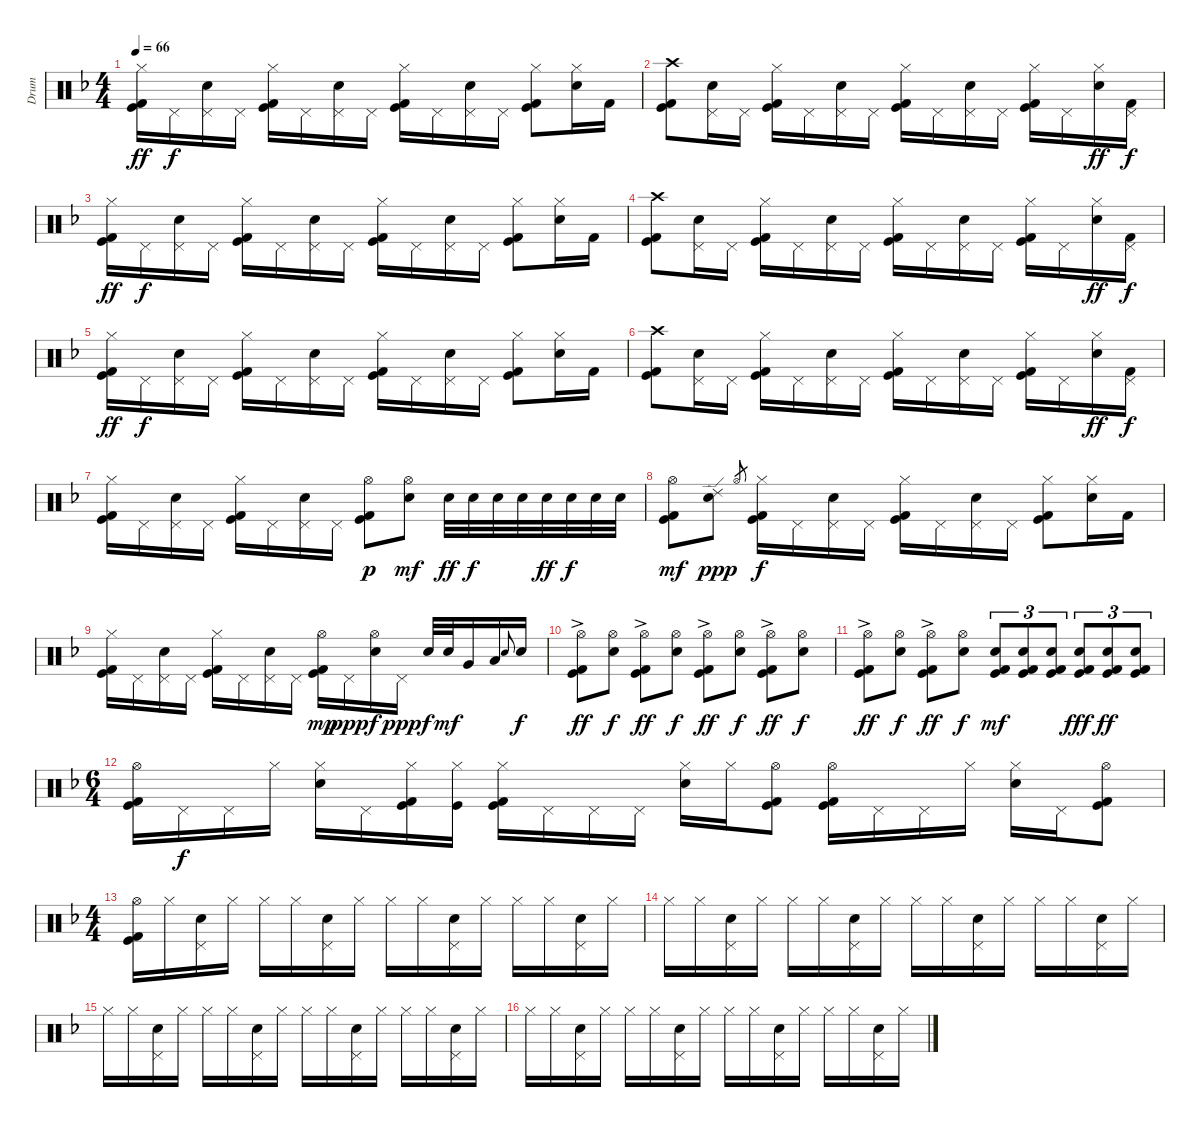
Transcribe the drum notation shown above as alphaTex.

\track ("Drum" "Drum") {instrument percussion}
\staff {score}
\articulation defaults
\ts (4 4)
\tempo 66
\clef neutral
\ks dminor
("Kick (hit)" "Kick (hit) 2" "Hi-Hat (closed)").16{dy ff} "Pedal Hi-Hat (hit)".16{dy f} ("Electric Snare (hit)" "Pedal Hi-Hat (hit)").16 "Pedal Hi-Hat (hit)".16 ("Kick (hit)" "Kick (hit) 2" "Hi-Hat (closed)").16 "Pedal Hi-Hat (hit)".16 ("Electric Snare (hit)" "Pedal Hi-Hat (hit)").16 "Pedal Hi-Hat (hit)".16 ("Kick (hit)" "Kick (hit) 2" "Hi-Hat (closed)").16 "Pedal Hi-Hat (hit)".16 ("Electric Snare (hit)" "Pedal Hi-Hat (hit)").16 "Pedal Hi-Hat (hit)".16 ("Kick (hit)" "Kick (hit) 2" "Hi-Hat (closed)").8 ("Electric Snare (hit)" "Hi-Hat (closed)").16 "Kick (hit) 2".16 |
("Kick (hit)" "Kick (hit) 2" "Crash high (hit)").8 ("Electric Snare (hit)" "Pedal Hi-Hat (hit)").16 "Pedal Hi-Hat (hit)".16 ("Kick (hit)" "Kick (hit) 2" "Hi-Hat (closed)").16 "Pedal Hi-Hat (hit)".16 ("Electric Snare (hit)" "Pedal Hi-Hat (hit)").16 "Pedal Hi-Hat (hit)".16 ("Kick (hit)" "Kick (hit) 2" "Hi-Hat (closed)").16 "Pedal Hi-Hat (hit)".16 ("Electric Snare (hit)" "Pedal Hi-Hat (hit)").16 "Pedal Hi-Hat (hit)".16 ("Kick (hit)" "Kick (hit) 2" "Hi-Hat (closed)").16 "Pedal Hi-Hat (hit)".16 ("Electric Snare (hit)" "Hi-Hat (closed)").16{dy ff} ("Kick (hit) 2" "Pedal Hi-Hat (hit)").16{dy f} |
("Kick (hit)" "Kick (hit) 2" "Hi-Hat (closed)").16{dy ff} "Pedal Hi-Hat (hit)".16{dy f} ("Electric Snare (hit)" "Pedal Hi-Hat (hit)").16 "Pedal Hi-Hat (hit)".16 ("Kick (hit)" "Kick (hit) 2" "Hi-Hat (closed)").16 "Pedal Hi-Hat (hit)".16 ("Electric Snare (hit)" "Pedal Hi-Hat (hit)").16 "Pedal Hi-Hat (hit)".16 ("Kick (hit)" "Kick (hit) 2" "Hi-Hat (closed)").16 "Pedal Hi-Hat (hit)".16 ("Electric Snare (hit)" "Pedal Hi-Hat (hit)").16 "Pedal Hi-Hat (hit)".16 ("Kick (hit)" "Kick (hit) 2" "Hi-Hat (closed)").8 ("Electric Snare (hit)" "Hi-Hat (closed)").16 "Kick (hit) 2".16 |
("Kick (hit)" "Kick (hit) 2" "Crash high (hit)").8 ("Electric Snare (hit)" "Pedal Hi-Hat (hit)").16 "Pedal Hi-Hat (hit)".16 ("Kick (hit)" "Kick (hit) 2" "Hi-Hat (closed)").16 "Pedal Hi-Hat (hit)".16 ("Electric Snare (hit)" "Pedal Hi-Hat (hit)").16 "Pedal Hi-Hat (hit)".16 ("Kick (hit)" "Kick (hit) 2" "Hi-Hat (closed)").16 "Pedal Hi-Hat (hit)".16 ("Electric Snare (hit)" "Pedal Hi-Hat (hit)").16 "Pedal Hi-Hat (hit)".16 ("Kick (hit)" "Kick (hit) 2" "Hi-Hat (closed)").16 "Pedal Hi-Hat (hit)".16 ("Electric Snare (hit)" "Hi-Hat (closed)").16{dy ff} ("Kick (hit) 2" "Pedal Hi-Hat (hit)").16{dy f} |
("Kick (hit)" "Kick (hit) 2" "Hi-Hat (closed)").16{dy ff} "Pedal Hi-Hat (hit)".16{dy f} ("Electric Snare (hit)" "Pedal Hi-Hat (hit)").16 "Pedal Hi-Hat (hit)".16 ("Kick (hit)" "Kick (hit) 2" "Hi-Hat (closed)").16 "Pedal Hi-Hat (hit)".16 ("Electric Snare (hit)" "Pedal Hi-Hat (hit)").16 "Pedal Hi-Hat (hit)".16 ("Kick (hit)" "Kick (hit) 2" "Hi-Hat (closed)").16 "Pedal Hi-Hat (hit)".16 ("Electric Snare (hit)" "Pedal Hi-Hat (hit)").16 "Pedal Hi-Hat (hit)".16 ("Kick (hit)" "Kick (hit) 2" "Hi-Hat (closed)").8 ("Electric Snare (hit)" "Hi-Hat (closed)").16 "Kick (hit) 2".16 |
("Kick (hit)" "Kick (hit) 2" "Crash high (hit)").8 ("Electric Snare (hit)" "Pedal Hi-Hat (hit)").16 "Pedal Hi-Hat (hit)".16 ("Kick (hit)" "Kick (hit) 2" "Hi-Hat (closed)").16 "Pedal Hi-Hat (hit)".16 ("Electric Snare (hit)" "Pedal Hi-Hat (hit)").16 "Pedal Hi-Hat (hit)".16 ("Kick (hit)" "Kick (hit) 2" "Hi-Hat (closed)").16 "Pedal Hi-Hat (hit)".16 ("Electric Snare (hit)" "Pedal Hi-Hat (hit)").16 "Pedal Hi-Hat (hit)".16 ("Kick (hit)" "Kick (hit) 2" "Hi-Hat (closed)").16 "Pedal Hi-Hat (hit)".16 ("Electric Snare (hit)" "Hi-Hat (closed)").16{dy ff} ("Kick (hit) 2" "Pedal Hi-Hat (hit)").16{dy f} |
("Kick (hit)" "Kick (hit) 2" "Hi-Hat (closed)").16 "Pedal Hi-Hat (hit)".16 ("Electric Snare (hit)" "Pedal Hi-Hat (hit)").16 "Pedal Hi-Hat (hit)".16 ("Kick (hit)" "Kick (hit) 2" "Hi-Hat (closed)").16 "Pedal Hi-Hat (hit)".16 ("Electric Snare (hit)" "Pedal Hi-Hat (hit)").16 "Pedal Hi-Hat (hit)".16 ("Kick (hit)" "Kick (hit) 2" "Hi-Hat (open)").8{dy p} ("Electric Snare (hit)" "Hi-Hat (open)").8{dy mf} "Electric Snare (hit)".32{dy ff} "Electric Snare (hit)".32{dy f} "Electric Snare (hit)".32 "Electric Snare (hit)".32 "Electric Snare (hit)".32{dy ff} "Electric Snare (hit)".32{dy f} "Electric Snare (hit)".32 "Electric Snare (hit)".32 |
("Kick (hit)" "Kick (hit) 2" "Hi-Hat (open)").8{dy mf} ("Electric Snare (hit)" "Ride (edge) 2").8{dy ppp} "Hi-Hat (open)".8{gr} ("Kick (hit)" "Kick (hit) 2" "Hi-Hat (closed)").16{dy f} "Pedal Hi-Hat (hit)".16 ("Electric Snare (hit)" "Pedal Hi-Hat (hit)").16 "Pedal Hi-Hat (hit)".16 ("Kick (hit)" "Kick (hit) 2" "Hi-Hat (closed)").16 "Pedal Hi-Hat (hit)".16 ("Electric Snare (hit)" "Pedal Hi-Hat (hit)").16 "Pedal Hi-Hat (hit)".16 ("Kick (hit)" "Kick (hit) 2" "Hi-Hat (closed)").8 ("Electric Snare (hit)" "Hi-Hat (closed)").16 "Kick (hit) 2".16 |
("Kick (hit)" "Kick (hit) 2" "Hi-Hat (closed)").16 "Pedal Hi-Hat (hit)".16 ("Electric Snare (hit)" "Pedal Hi-Hat (hit)").16 "Pedal Hi-Hat (hit)".16 ("Kick (hit)" "Kick (hit) 2" "Hi-Hat (closed)").16 "Pedal Hi-Hat (hit)".16 ("Electric Snare (hit)" "Pedal Hi-Hat (hit)").16 "Pedal Hi-Hat (hit)".16 ("Kick (hit)" "Kick (hit) 2" "Hi-Hat (open)").16{dy mp} "Pedal Hi-Hat (hit)".16{dy ppp} ("Electric Snare (hit)" "Hi-Hat (open)").16{dy f} "Pedal Hi-Hat (hit)".16{dy ppp} "Electric Snare (hit)".32{dy f} "Electric Snare (hit)".32{dy mf} "Very Low Tom (hit)".16 "Low Floor Tom (hit)".16 "Electric Snare (hit)".8{gr onbeat} "Electric Snare (hit)".16{dy f} |
("Kick (hit)" "Kick (hit) 2" "Hi-Hat (open)"{ac}).8{dy ff} ("Electric Snare (hit)" "Hi-Hat (open)").8{dy f} ("Kick (hit)" "Kick (hit) 2" "Hi-Hat (open)"{ac}).8{dy ff} ("Electric Snare (hit)" "Hi-Hat (open)").8{dy f} ("Kick (hit)" "Kick (hit) 2" "Hi-Hat (open)"{ac}).8{dy ff} ("Electric Snare (hit)" "Hi-Hat (open)").8{dy f} ("Kick (hit)" "Kick (hit) 2" "Hi-Hat (open)"{ac}).8{dy ff} ("Electric Snare (hit)" "Hi-Hat (open)").8{dy f} |
("Kick (hit)" "Kick (hit) 2" "Hi-Hat (open)"{ac}).8{dy ff} ("Electric Snare (hit)" "Hi-Hat (open)").8{dy f} ("Kick (hit)" "Kick (hit) 2" "Hi-Hat (open)"{ac}).8{dy ff} ("Electric Snare (hit)" "Hi-Hat (open)").8{dy f} ("Electric Snare (hit)" "Kick (hit) 2" "Kick (hit)").8{tu (3 2) dy mf} ("Electric Snare (hit)" "Kick (hit) 2" "Kick (hit)").8{tu (3 2)} ("Electric Snare (hit)" "Kick (hit) 2" "Kick (hit)").8{tu (3 2)} ("Electric Snare (hit)" "Kick (hit) 2" "Kick (hit)").8{tu (3 2) dy fff} ("Electric Snare (hit)" "Kick (hit) 2" "Kick (hit)").8{tu (3 2) dy ff} ("Electric Snare (hit)" "Kick (hit) 2" "Kick (hit)").8{tu (3 2)} |
\ts (6 4)
("Kick (hit)" "Kick (hit) 2" "Hi-Hat (open)").16 "Pedal Hi-Hat (hit)".16{dy f} "Pedal Hi-Hat (hit)".16 "Hi-Hat (closed)".16 ("Electric Snare (hit)" "Hi-Hat (closed)").16 "Pedal Hi-Hat (hit)".16 ("Kick (hit)" "Kick (hit) 2" "Hi-Hat (closed)").16 ("Kick (hit)" "Hi-Hat (closed)").16 ("Kick (hit)" "Kick (hit) 2" "Hi-Hat (closed)").16 "Pedal Hi-Hat (hit)".16 "Pedal Hi-Hat (hit)".16 "Pedal Hi-Hat (hit)".16 ("Electric Snare (hit)" "Hi-Hat (closed)").16 "Hi-Hat (closed)".16 ("Kick (hit)" "Kick (hit) 2" "Hi-Hat (open)").8 ("Kick (hit)" "Kick (hit) 2" "Hi-Hat (open)").16 "Pedal Hi-Hat (hit)".16 "Pedal Hi-Hat (hit)".16 "Hi-Hat (closed)".16 ("Electric Snare (hit)" "Hi-Hat (closed)").16 "Pedal Hi-Hat (hit)".16 ("Kick (hit)" "Kick (hit) 2" "Hi-Hat (open)").8 |
\ts (4 4)
("Kick (hit)" "Kick (hit) 2" "Hi-Hat (open)").16 "Hi-Hat (closed)".16 ("Electric Snare (hit)" "Pedal Hi-Hat (hit)").16 "Hi-Hat (closed)".16 "Hi-Hat (closed)".16 "Hi-Hat (closed)".16 ("Electric Snare (hit)" "Pedal Hi-Hat (hit)").16 "Hi-Hat (closed)".16 "Hi-Hat (closed)".16 "Hi-Hat (closed)".16 ("Electric Snare (hit)" "Pedal Hi-Hat (hit)").16 "Hi-Hat (closed)".16 "Hi-Hat (closed)".16 "Hi-Hat (closed)".16 ("Electric Snare (hit)" "Pedal Hi-Hat (hit)").16 "Hi-Hat (closed)".16 |
"Hi-Hat (closed)".16 "Hi-Hat (closed)".16 ("Electric Snare (hit)" "Pedal Hi-Hat (hit)").16 "Hi-Hat (closed)".16 "Hi-Hat (closed)".16 "Hi-Hat (closed)".16 ("Electric Snare (hit)" "Pedal Hi-Hat (hit)").16 "Hi-Hat (closed)".16 "Hi-Hat (closed)".16 "Hi-Hat (closed)".16 ("Electric Snare (hit)" "Pedal Hi-Hat (hit)").16 "Hi-Hat (closed)".16 "Hi-Hat (closed)".16 "Hi-Hat (closed)".16 ("Electric Snare (hit)" "Pedal Hi-Hat (hit)").16 "Hi-Hat (closed)".16 |
"Hi-Hat (closed)".16 "Hi-Hat (closed)".16 ("Electric Snare (hit)" "Pedal Hi-Hat (hit)").16 "Hi-Hat (closed)".16 "Hi-Hat (closed)".16 "Hi-Hat (closed)".16 ("Electric Snare (hit)" "Pedal Hi-Hat (hit)").16 "Hi-Hat (closed)".16 "Hi-Hat (closed)".16 "Hi-Hat (closed)".16 ("Electric Snare (hit)" "Pedal Hi-Hat (hit)").16 "Hi-Hat (closed)".16 "Hi-Hat (closed)".16 "Hi-Hat (closed)".16 ("Electric Snare (hit)" "Pedal Hi-Hat (hit)").16 "Hi-Hat (closed)".16 |
"Hi-Hat (closed)".16 "Hi-Hat (closed)".16 ("Electric Snare (hit)" "Pedal Hi-Hat (hit)").16 "Hi-Hat (closed)".16 "Hi-Hat (closed)".16 "Hi-Hat (closed)".16 ("Electric Snare (hit)" "Pedal Hi-Hat (hit)").16 "Hi-Hat (closed)".16 "Hi-Hat (closed)".16 "Hi-Hat (closed)".16 ("Electric Snare (hit)" "Pedal Hi-Hat (hit)").16 "Hi-Hat (closed)".16 "Hi-Hat (closed)".16 "Hi-Hat (closed)".16 ("Electric Snare (hit)" "Pedal Hi-Hat (hit)").16 "Hi-Hat (closed)".16
